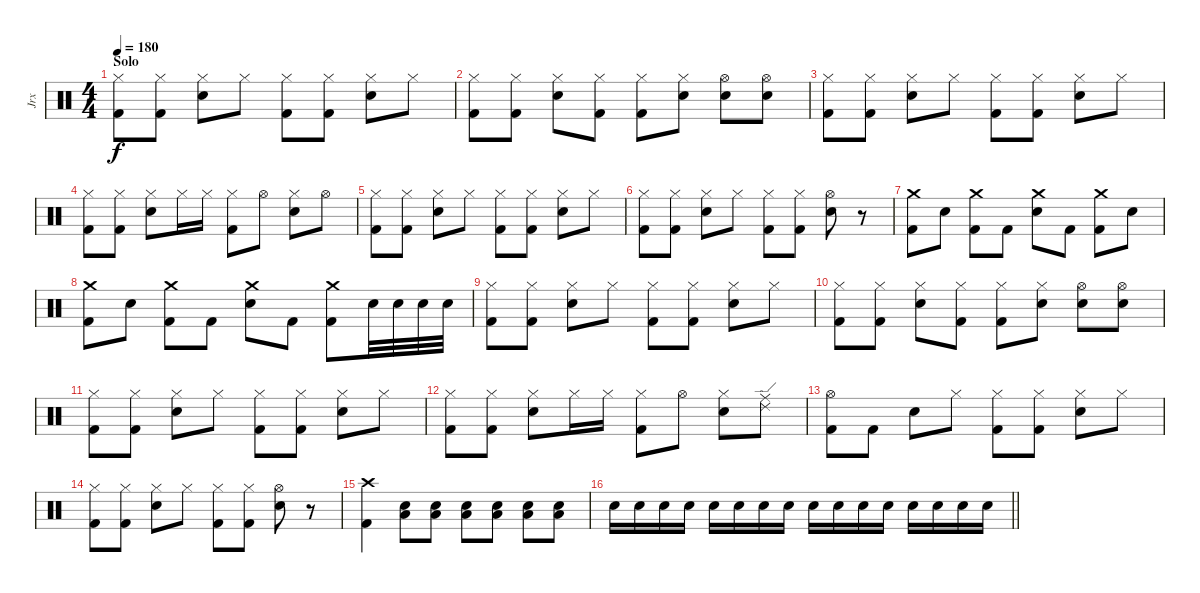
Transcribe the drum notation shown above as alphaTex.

\track ("Jrx" "Jrx") {instrument percussion}
\staff {score}
\articulation defaults
\ts (4 4)
\section ("" "Solo")
\tempo 180
\clef neutral
\ks c
("Kick (hit) 2" "Hi-Hat (closed)").8{dy f} ("Kick (hit) 2" "Hi-Hat (closed)").8 ("Electric Snare (hit)" "Hi-Hat (closed)").8 "Hi-Hat (closed)".8 ("Kick (hit) 2" "Hi-Hat (closed)").8 ("Kick (hit) 2" "Hi-Hat (closed)").8 ("Electric Snare (hit)" "Hi-Hat (closed)").8 "Hi-Hat (closed)".8 |
("Kick (hit) 2" "Hi-Hat (closed)").8 ("Kick (hit) 2" "Hi-Hat (closed)").8 ("Electric Snare (hit)" "Hi-Hat (closed)").8 ("Kick (hit) 2" "Hi-Hat (closed)").8 ("Kick (hit) 2" "Hi-Hat (closed)").8 ("Electric Snare (hit)" "Hi-Hat (closed)").8 ("Electric Snare (hit)" "Hi-Hat (open)").8 ("Electric Snare (hit)" "Hi-Hat (open)").8 |
("Kick (hit) 2" "Hi-Hat (closed)").8 ("Kick (hit) 2" "Hi-Hat (closed)").8 ("Electric Snare (hit)" "Hi-Hat (closed)").8 "Hi-Hat (closed)".8 ("Kick (hit) 2" "Hi-Hat (closed)").8 ("Kick (hit) 2" "Hi-Hat (closed)").8 ("Electric Snare (hit)" "Hi-Hat (closed)").8 "Hi-Hat (closed)".8 |
("Kick (hit) 2" "Hi-Hat (closed)").8 ("Kick (hit) 2" "Hi-Hat (closed)").8 ("Electric Snare (hit)" "Hi-Hat (closed)").8 "Hi-Hat (closed)".16 "Hi-Hat (closed)".16 ("Kick (hit) 2" "Hi-Hat (closed)").8 "Hi-Hat (open)".8 ("Electric Snare (hit)" "Hi-Hat (closed)").8 "Hi-Hat (open)".8 |
("Kick (hit) 2" "Hi-Hat (closed)").8 ("Kick (hit) 2" "Hi-Hat (closed)").8 ("Electric Snare (hit)" "Hi-Hat (closed)").8 "Hi-Hat (closed)".8 ("Kick (hit) 2" "Hi-Hat (closed)").8 ("Kick (hit) 2" "Hi-Hat (closed)").8 ("Electric Snare (hit)" "Hi-Hat (closed)").8 "Hi-Hat (closed)".8 |
("Kick (hit) 2" "Hi-Hat (closed)").8 ("Kick (hit) 2" "Hi-Hat (closed)").8 ("Electric Snare (hit)" "Hi-Hat (closed)").8 "Hi-Hat (closed)".8 ("Kick (hit) 2" "Hi-Hat (closed)").8 ("Kick (hit) 2" "Hi-Hat (closed)").8 ("Electric Snare (hit)" "Hi-Hat (open)").8 r.8 |
("Kick (hit) 2" "Crash medium (hit)").8 "Electric Snare (hit)".8 ("Kick (hit) 2" "Crash medium (hit)").8 "Kick (hit) 2".8 ("Electric Snare (hit)" "Crash medium (hit)").8 "Kick (hit) 2".8 ("Kick (hit) 2" "Crash medium (hit)").8 "Electric Snare (hit)".8 |
("Kick (hit) 2" "Crash medium (hit)").8 "Electric Snare (hit)".8 ("Kick (hit) 2" "Crash medium (hit)").8 "Kick (hit) 2".8 ("Electric Snare (hit)" "Crash medium (hit)").8 "Kick (hit) 2".8 ("Kick (hit) 2" "Crash medium (hit)").8 "Electric Snare (hit)".32 "Electric Snare (hit)".32 "Electric Snare (hit)".32 "Electric Snare (hit)".32 |
("Kick (hit) 2" "Hi-Hat (closed)").8 ("Kick (hit) 2" "Hi-Hat (closed)").8 ("Electric Snare (hit)" "Hi-Hat (closed)").8 "Hi-Hat (closed)".8 ("Kick (hit) 2" "Hi-Hat (closed)").8 ("Kick (hit) 2" "Hi-Hat (closed)").8 ("Electric Snare (hit)" "Hi-Hat (closed)").8 "Hi-Hat (closed)".8 |
("Kick (hit) 2" "Hi-Hat (closed)").8 ("Kick (hit) 2" "Hi-Hat (closed)").8 ("Electric Snare (hit)" "Hi-Hat (closed)").8 ("Kick (hit) 2" "Hi-Hat (closed)").8 ("Kick (hit) 2" "Hi-Hat (closed)").8 ("Electric Snare (hit)" "Hi-Hat (closed)").8 ("Electric Snare (hit)" "Hi-Hat (open)").8 ("Electric Snare (hit)" "Hi-Hat (open)").8 |
("Kick (hit) 2" "Hi-Hat (closed)").8 ("Kick (hit) 2" "Hi-Hat (closed)").8 ("Electric Snare (hit)" "Hi-Hat (closed)").8 "Hi-Hat (closed)".8 ("Kick (hit) 2" "Hi-Hat (closed)").8 ("Kick (hit) 2" "Hi-Hat (closed)").8 ("Electric Snare (hit)" "Hi-Hat (closed)").8 "Hi-Hat (closed)".8 |
("Kick (hit) 2" "Hi-Hat (closed)").8 ("Kick (hit) 2" "Hi-Hat (closed)").8 ("Electric Snare (hit)" "Hi-Hat (closed)").8 "Hi-Hat (closed)".16 "Hi-Hat (closed)".16 ("Kick (hit) 2" "Hi-Hat (closed)").8 "Hi-Hat (open)".8 ("Electric Snare (hit)" "Hi-Hat (closed)").8 ("Ride (edge) 2" "Ride (middle)").8 |
("Kick (hit) 2" "Hi-Hat (open)").8 "Kick (hit) 2".8 "Electric Snare (hit)".8 "Hi-Hat (closed)".8 ("Kick (hit) 2" "Hi-Hat (closed)").8 ("Kick (hit) 2" "Hi-Hat (closed)").8 ("Electric Snare (hit)" "Hi-Hat (closed)").8 "Hi-Hat (closed)".8 |
("Kick (hit) 2" "Hi-Hat (closed)").8 ("Kick (hit) 2" "Hi-Hat (closed)").8 ("Electric Snare (hit)" "Hi-Hat (closed)").8 "Hi-Hat (closed)".8 ("Kick (hit) 2" "Hi-Hat (closed)").8 ("Kick (hit) 2" "Hi-Hat (closed)").8 ("Electric Snare (hit)" "Hi-Hat (open)").8 r.8 |
("Kick (hit) 2" "Crash high (hit)").4 ("Electric Snare (hit)" "Low Floor Tom (hit)").8 ("Electric Snare (hit)" "Low Floor Tom (hit)").8 ("Electric Snare (hit)" "Low Floor Tom (hit)").8 ("Electric Snare (hit)" "Low Floor Tom (hit)").8 ("Electric Snare (hit)" "Low Floor Tom (hit)").8 ("Electric Snare (hit)" "Low Floor Tom (hit)").8 |
\barLineRight lightlight "Electric Snare (hit)".16 "Electric Snare (hit)".16 "Electric Snare (hit)".16 "Electric Snare (hit)".16 "Electric Snare (hit)".16 "Electric Snare (hit)".16 "Electric Snare (hit)".16 "Electric Snare (hit)".16 "Electric Snare (hit)".16 "Electric Snare (hit)".16 "Electric Snare (hit)".16 "Electric Snare (hit)".16 "Electric Snare (hit)".16 "Electric Snare (hit)".16 "Electric Snare (hit)".16 "Electric Snare (hit)".16
